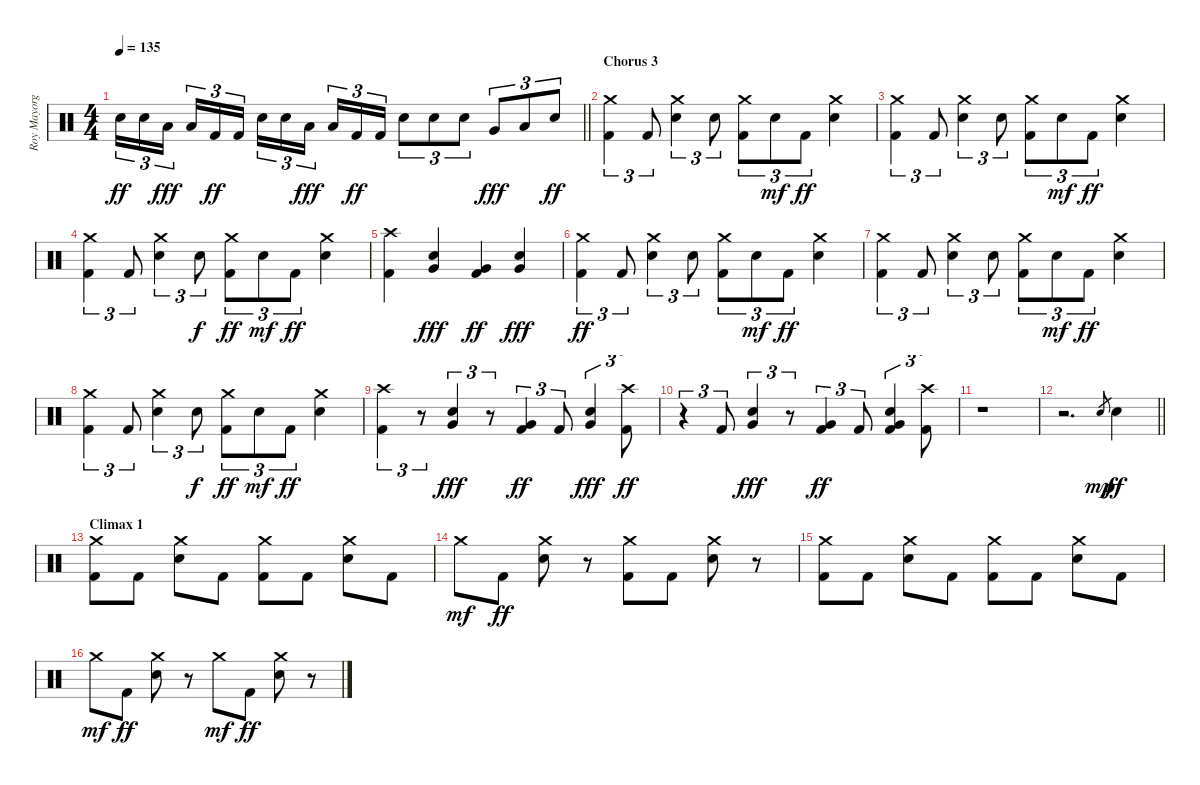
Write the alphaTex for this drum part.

\track ("Roy Mayorga" "Roy Mayorg") {instrument percussion}
\staff {score}
\articulation defaults
\ts (4 4)
\tempo 135
\clef neutral
\barLineRight lightlight
\ks c "Electric Snare (hit)".16{tu (3 2) dy ff} "Electric Snare (hit)".16{tu (3 2)} "Low Tom (hit)".16{tu (3 2) dy fff beam splitsecondary} "Low Tom (hit)".16{tu (3 2)} "Kick (hit) 2".16{tu (3 2) dy ff} "Kick (hit) 2".16{tu (3 2)} "Electric Snare (hit)".16{tu (3 2)} "Electric Snare (hit)".16{tu (3 2)} "Low Tom (hit)".16{tu (3 2) dy fff beam splitsecondary} "Low Tom (hit)".16{tu (3 2)} "Kick (hit) 2".16{tu (3 2) dy ff} "Kick (hit) 2".16{tu (3 2)} "Electric Snare (hit)".8{tu (3 2)} "Electric Snare (hit)".8{tu (3 2)} "Electric Snare (hit)".8{tu (3 2)} "Very Low Tom (hit)".8{tu (3 2) dy fff} "Low Floor Tom (hit)".8{tu (3 2)} "Electric Snare (hit)".8{tu (3 2) dy ff}
|
\section ("" "Chorus 3")
("Crash medium (hit)" "Kick (hit) 2").4{tu (3 2)} "Kick (hit) 2".8{tu (3 2)} ("Crash medium (hit)" "Electric Snare (hit)").4{tu (3 2)} "Electric Snare (hit)".8{tu (3 2)} ("Crash medium (hit)" "Kick (hit) 2").8{tu (3 2)} "Electric Snare (hit)".8{tu (3 2) dy mf} "Kick (hit) 2".8{tu (3 2) dy ff} ("Crash medium (hit)" "Electric Snare (hit)").4 |
("Crash medium (hit)" "Kick (hit) 2").4{tu (3 2)} "Kick (hit) 2".8{tu (3 2)} ("Crash medium (hit)" "Electric Snare (hit)").4{tu (3 2)} "Electric Snare (hit)".8{tu (3 2)} ("Crash medium (hit)" "Kick (hit) 2").8{tu (3 2)} "Electric Snare (hit)".8{tu (3 2) dy mf} "Kick (hit) 2".8{tu (3 2) dy ff} ("Crash medium (hit)" "Electric Snare (hit)").4 |
("Crash medium (hit)" "Kick (hit) 2").4{tu (3 2)} "Kick (hit) 2".8{tu (3 2)} ("Crash medium (hit)" "Electric Snare (hit)").4{tu (3 2)} "Electric Snare (hit)".8{tu (3 2) dy f} ("Crash medium (hit)" "Kick (hit) 2").8{tu (3 2) dy ff} "Electric Snare (hit)".8{tu (3 2) dy mf} "Kick (hit) 2".8{tu (3 2) dy ff} ("Crash medium (hit)" "Electric Snare (hit)").4 |
("Crash high (hit)" "Kick (hit) 2").4 ("Electric Snare (hit)" "Very Low Tom (hit)").4{dy fff} ("Very Low Tom (hit)" "Kick (hit) 2").4{dy ff} ("Electric Snare (hit)" "Very Low Tom (hit)").4{dy fff} |
("Crash medium (hit)" "Kick (hit) 2").4{tu (3 2) dy ff} "Kick (hit) 2".8{tu (3 2)} ("Crash medium (hit)" "Electric Snare (hit)").4{tu (3 2)} "Electric Snare (hit)".8{tu (3 2)} ("Crash medium (hit)" "Kick (hit) 2").8{tu (3 2)} "Electric Snare (hit)".8{tu (3 2) dy mf} "Kick (hit) 2".8{tu (3 2) dy ff} ("Crash medium (hit)" "Electric Snare (hit)").4 |
("Crash medium (hit)" "Kick (hit) 2").4{tu (3 2)} "Kick (hit) 2".8{tu (3 2)} ("Crash medium (hit)" "Electric Snare (hit)").4{tu (3 2)} "Electric Snare (hit)".8{tu (3 2)} ("Crash medium (hit)" "Kick (hit) 2").8{tu (3 2)} "Electric Snare (hit)".8{tu (3 2) dy mf} "Kick (hit) 2".8{tu (3 2) dy ff} ("Crash medium (hit)" "Electric Snare (hit)").4 |
("Crash medium (hit)" "Kick (hit) 2").4{tu (3 2)} "Kick (hit) 2".8{tu (3 2)} ("Crash medium (hit)" "Electric Snare (hit)").4{tu (3 2)} "Electric Snare (hit)".8{tu (3 2) dy f} ("Crash medium (hit)" "Kick (hit) 2").8{tu (3 2) dy ff} "Electric Snare (hit)".8{tu (3 2) dy mf} "Kick (hit) 2".8{tu (3 2) dy ff} ("Crash medium (hit)" "Electric Snare (hit)").4 |
("Crash high (hit)" "Kick (hit) 2").4{tu (3 2)} r.8{tu (3 2)} ("Electric Snare (hit)" "Very Low Tom (hit)").4{tu (3 2) dy fff} r.8{tu (3 2)} ("Very Low Tom (hit)" "Kick (hit) 2").4{tu (3 2) dy ff} "Kick (hit) 2".8{tu (3 2)} ("Electric Snare (hit)" "Very Low Tom (hit)").4{tu (3 2) dy fff} ("Crash high (hit)" "Kick (hit) 2").8{tu (3 2) dy ff} |
r.4{tu (3 2)} "Kick (hit) 2".8{tu (3 2)} ("Electric Snare (hit)" "Very Low Tom (hit)").4{tu (3 2) dy fff} r.8{tu (3 2)} ("Very Low Tom (hit)" "Kick (hit) 2").4{tu (3 2) dy ff} "Kick (hit) 2".8{tu (3 2)} ("Electric Snare (hit)" "Very Low Tom (hit)" "Kick (hit) 2").4{tu (3 2)} ("Crash high (hit)" "Kick (hit) 2").8{tu (3 2)} |
r.1 |
\barLineRight lightlight
r.2{d} "Electric Snare (hit)".8{gr dy mp} "Electric Snare (hit)".4{dy ff} |
\section ("" "Climax 1")
("Crash medium (hit)" "Kick (hit) 2").8 "Kick (hit) 2".8 ("Crash medium (hit)" "Electric Snare (hit)").8 "Kick (hit) 2".8 ("Crash medium (hit)" "Kick (hit) 2").8 "Kick (hit) 2".8 ("Crash medium (hit)" "Electric Snare (hit)").8 "Kick (hit) 2".8 |
"Crash medium (hit)".8{dy mf} "Kick (hit) 2".8{dy ff} ("Crash medium (hit)" "Electric Snare (hit)").8 r.8 ("Crash medium (hit)" "Kick (hit) 2").8 "Kick (hit) 2".8 ("Crash medium (hit)" "Electric Snare (hit)").8 r.8 |
("Crash medium (hit)" "Kick (hit) 2").8 "Kick (hit) 2".8 ("Crash medium (hit)" "Electric Snare (hit)").8 "Kick (hit) 2".8 ("Crash medium (hit)" "Kick (hit) 2").8 "Kick (hit) 2".8 ("Crash medium (hit)" "Electric Snare (hit)").8 "Kick (hit) 2".8 |
"Crash medium (hit)".8{dy mf} "Kick (hit) 2".8{dy ff} ("Crash medium (hit)" "Electric Snare (hit)").8 r.8 "Crash medium (hit)".8{dy mf} "Kick (hit) 2".8{dy ff} ("Crash medium (hit)" "Electric Snare (hit)").8 r.8
